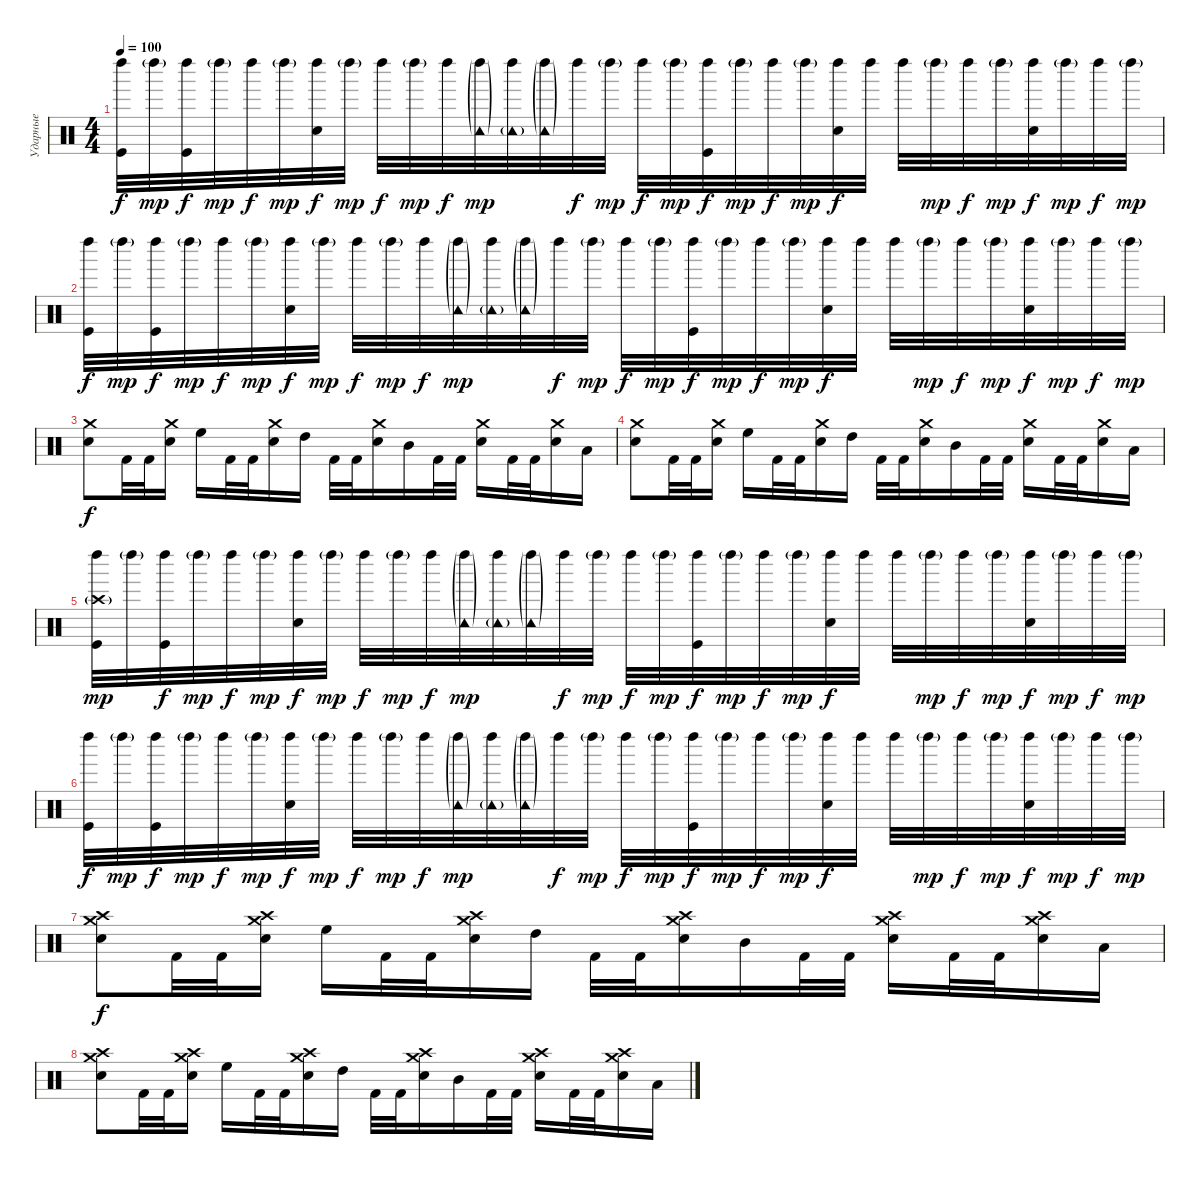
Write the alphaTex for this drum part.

\track ("Ударные" "Ударные") {instrument percussion}
\staff {score}
\articulation defaults
\ts (4 4)
\tempo 100
\clef neutral
\ks c
("Left Maraca (hit)" "Kick (hit)").32{dy f} "Left Maraca (hit)"{g}.32{dy mp} ("Left Maraca (hit)" "Kick (hit)").32{dy f} "Left Maraca (hit)"{g}.32{dy mp} "Left Maraca (hit)".32{dy f} "Left Maraca (hit)"{g}.32{dy mp} ("Left Maraca (hit)" "Electric Snare (hit)").32{dy f} "Left Maraca (hit)"{g}.32{dy mp} "Left Maraca (hit)".32{dy f} "Left Maraca (hit)"{g}.32{dy mp} "Left Maraca (hit)".32{dy f} ("Left Maraca (hit)"{g} "Tambourine (hit)"{g}).32{dy mp} ("Left Maraca (hit)" "Tambourine (hit)"{g}).32 ("Left Maraca (hit)"{g} "Tambourine (hit)"{g}).32 "Left Maraca (hit)".32{dy f} "Left Maraca (hit)"{g}.32{dy mp} "Left Maraca (hit)".32{dy f} "Left Maraca (hit)"{g}.32{dy mp} ("Left Maraca (hit)" "Kick (hit)").32{dy f} "Left Maraca (hit)"{g}.32{dy mp} "Left Maraca (hit)".32{dy f} "Left Maraca (hit)"{g}.32{dy mp} ("Left Maraca (hit)" "Electric Snare (hit)").32{dy f} "Left Maraca (hit)".32 "Left Maraca (hit)".32 "Left Maraca (hit)"{g}.32{dy mp} "Left Maraca (hit)".32{dy f} "Left Maraca (hit)"{g}.32{dy mp} ("Left Maraca (hit)" "Electric Snare (hit)").32{dy f} "Left Maraca (hit)"{g}.32{dy mp} "Left Maraca (hit)".32{dy f} "Left Maraca (hit)"{g}.32{dy mp} |
("Left Maraca (hit)" "Kick (hit)").32{dy f} "Left Maraca (hit)"{g}.32{dy mp} ("Left Maraca (hit)" "Kick (hit)").32{dy f} "Left Maraca (hit)"{g}.32{dy mp} "Left Maraca (hit)".32{dy f} "Left Maraca (hit)"{g}.32{dy mp} ("Left Maraca (hit)" "Electric Snare (hit)").32{dy f} "Left Maraca (hit)"{g}.32{dy mp} "Left Maraca (hit)".32{dy f} "Left Maraca (hit)"{g}.32{dy mp} "Left Maraca (hit)".32{dy f} ("Left Maraca (hit)"{g} "Tambourine (hit)"{g}).32{dy mp} ("Left Maraca (hit)" "Tambourine (hit)"{g}).32 ("Left Maraca (hit)"{g} "Tambourine (hit)"{g}).32 "Left Maraca (hit)".32{dy f} "Left Maraca (hit)"{g}.32{dy mp} "Left Maraca (hit)".32{dy f} "Left Maraca (hit)"{g}.32{dy mp} ("Left Maraca (hit)" "Kick (hit)").32{dy f} "Left Maraca (hit)"{g}.32{dy mp} "Left Maraca (hit)".32{dy f} "Left Maraca (hit)"{g}.32{dy mp} ("Left Maraca (hit)" "Electric Snare (hit)").32{dy f} "Left Maraca (hit)".32 "Left Maraca (hit)".32 "Left Maraca (hit)"{g}.32{dy mp} "Left Maraca (hit)".32{dy f} "Left Maraca (hit)"{g}.32{dy mp} ("Left Maraca (hit)" "Electric Snare (hit)").32{dy f} "Left Maraca (hit)"{g}.32{dy mp} "Left Maraca (hit)".32{dy f} "Left Maraca (hit)"{g}.32{dy mp} |
("Crash medium (hit)" "Electric Snare (hit)").8{dy f} "Kick (hit) 2".32 "Kick (hit) 2".32 ("Crash medium (hit)" "Electric Snare (hit)").16 "High Floor Tom (hit)".16 "Kick (hit) 2".32 "Kick (hit) 2".32 ("Crash medium (hit)" "Electric Snare (hit)").16 "High Tom (hit)".16 "Kick (hit) 2".32 "Kick (hit) 2".32 ("Crash medium (hit)" "Electric Snare (hit)").16 "Mid Tom (hit)".16 "Kick (hit) 2".32 "Kick (hit) 2".32 ("Crash medium (hit)" "Electric Snare (hit)").16 "Kick (hit) 2".32 "Kick (hit) 2".32 ("Crash medium (hit)" "Electric Snare (hit)").16 "Low Tom (hit)".16 |
("Crash medium (hit)" "Electric Snare (hit)").8 "Kick (hit) 2".32 "Kick (hit) 2".32 ("Crash medium (hit)" "Electric Snare (hit)").16 "High Floor Tom (hit)".16 "Kick (hit) 2".32 "Kick (hit) 2".32 ("Crash medium (hit)" "Electric Snare (hit)").16 "High Tom (hit)".16 "Kick (hit) 2".32 "Kick (hit) 2".32 ("Crash medium (hit)" "Electric Snare (hit)").16 "Mid Tom (hit)".16 "Kick (hit) 2".32 "Kick (hit) 2".32 ("Crash medium (hit)" "Electric Snare (hit)").16 "Kick (hit) 2".32 "Kick (hit) 2".32 ("Crash medium (hit)" "Electric Snare (hit)").16 "Low Tom (hit)".16 |
("Left Maraca (hit)" "Crash high (hit)"{g} "Kick (hit)").32{dy mp} "Left Maraca (hit)"{g}.32 ("Left Maraca (hit)" "Kick (hit)").32{dy f} "Left Maraca (hit)"{g}.32{dy mp} "Left Maraca (hit)".32{dy f} "Left Maraca (hit)"{g}.32{dy mp} ("Left Maraca (hit)" "Electric Snare (hit)").32{dy f} "Left Maraca (hit)"{g}.32{dy mp} "Left Maraca (hit)".32{dy f} "Left Maraca (hit)"{g}.32{dy mp} "Left Maraca (hit)".32{dy f} ("Left Maraca (hit)"{g} "Tambourine (hit)"{g}).32{dy mp} ("Left Maraca (hit)" "Tambourine (hit)"{g}).32 ("Left Maraca (hit)"{g} "Tambourine (hit)"{g}).32 "Left Maraca (hit)".32{dy f} "Left Maraca (hit)"{g}.32{dy mp} "Left Maraca (hit)".32{dy f} "Left Maraca (hit)"{g}.32{dy mp} ("Left Maraca (hit)" "Kick (hit)").32{dy f} "Left Maraca (hit)"{g}.32{dy mp} "Left Maraca (hit)".32{dy f} "Left Maraca (hit)"{g}.32{dy mp} ("Left Maraca (hit)" "Electric Snare (hit)").32{dy f} "Left Maraca (hit)".32 "Left Maraca (hit)".32 "Left Maraca (hit)"{g}.32{dy mp} "Left Maraca (hit)".32{dy f} "Left Maraca (hit)"{g}.32{dy mp} ("Left Maraca (hit)" "Electric Snare (hit)").32{dy f} "Left Maraca (hit)"{g}.32{dy mp} "Left Maraca (hit)".32{dy f} "Left Maraca (hit)"{g}.32{dy mp} |
("Left Maraca (hit)" "Kick (hit)").32{dy f} "Left Maraca (hit)"{g}.32{dy mp} ("Left Maraca (hit)" "Kick (hit)").32{dy f} "Left Maraca (hit)"{g}.32{dy mp} "Left Maraca (hit)".32{dy f} "Left Maraca (hit)"{g}.32{dy mp} ("Left Maraca (hit)" "Electric Snare (hit)").32{dy f} "Left Maraca (hit)"{g}.32{dy mp} "Left Maraca (hit)".32{dy f} "Left Maraca (hit)"{g}.32{dy mp} "Left Maraca (hit)".32{dy f} ("Left Maraca (hit)"{g} "Tambourine (hit)"{g}).32{dy mp} ("Left Maraca (hit)" "Tambourine (hit)"{g}).32 ("Left Maraca (hit)"{g} "Tambourine (hit)"{g}).32 "Left Maraca (hit)".32{dy f} "Left Maraca (hit)"{g}.32{dy mp} "Left Maraca (hit)".32{dy f} "Left Maraca (hit)"{g}.32{dy mp} ("Left Maraca (hit)" "Kick (hit)").32{dy f} "Left Maraca (hit)"{g}.32{dy mp} "Left Maraca (hit)".32{dy f} "Left Maraca (hit)"{g}.32{dy mp} ("Left Maraca (hit)" "Electric Snare (hit)").32{dy f} "Left Maraca (hit)".32 "Left Maraca (hit)".32 "Left Maraca (hit)"{g}.32{dy mp} "Left Maraca (hit)".32{dy f} "Left Maraca (hit)"{g}.32{dy mp} ("Left Maraca (hit)" "Electric Snare (hit)").32{dy f} "Left Maraca (hit)"{g}.32{dy mp} "Left Maraca (hit)".32{dy f} "Left Maraca (hit)"{g}.32{dy mp} |
("Crash high (hit)" "Crash medium (hit)" "Electric Snare (hit)").8{dy f} "Kick (hit) 2".32 "Kick (hit) 2".32 ("Crash high (hit)" "Crash medium (hit)" "Electric Snare (hit)").16 "High Floor Tom (hit)".16 "Kick (hit) 2".32 "Kick (hit) 2".32 ("Crash high (hit)" "Crash medium (hit)" "Electric Snare (hit)").16 "High Tom (hit)".16 "Kick (hit) 2".32 "Kick (hit) 2".32 ("Crash high (hit)" "Crash medium (hit)" "Electric Snare (hit)").16 "Mid Tom (hit)".16 "Kick (hit) 2".32 "Kick (hit) 2".32 ("Crash high (hit)" "Crash medium (hit)" "Electric Snare (hit)").16 "Kick (hit) 2".32 "Kick (hit) 2".32 ("Crash high (hit)" "Crash medium (hit)" "Electric Snare (hit)").16 "Low Tom (hit)".16 |
("Crash high (hit)" "Crash medium (hit)" "Electric Snare (hit)").8 "Kick (hit) 2".32 "Kick (hit) 2".32 ("Crash high (hit)" "Crash medium (hit)" "Electric Snare (hit)").16 "High Floor Tom (hit)".16 "Kick (hit) 2".32 "Kick (hit) 2".32 ("Crash high (hit)" "Crash medium (hit)" "Electric Snare (hit)").16 "High Tom (hit)".16 "Kick (hit) 2".32 "Kick (hit) 2".32 ("Crash high (hit)" "Crash medium (hit)" "Electric Snare (hit)").16 "Mid Tom (hit)".16 "Kick (hit) 2".32 "Kick (hit) 2".32 ("Crash high (hit)" "Crash medium (hit)" "Electric Snare (hit)").16 "Kick (hit) 2".32 "Kick (hit) 2".32 ("Crash high (hit)" "Crash medium (hit)" "Electric Snare (hit)").16 "Low Tom (hit)".16
